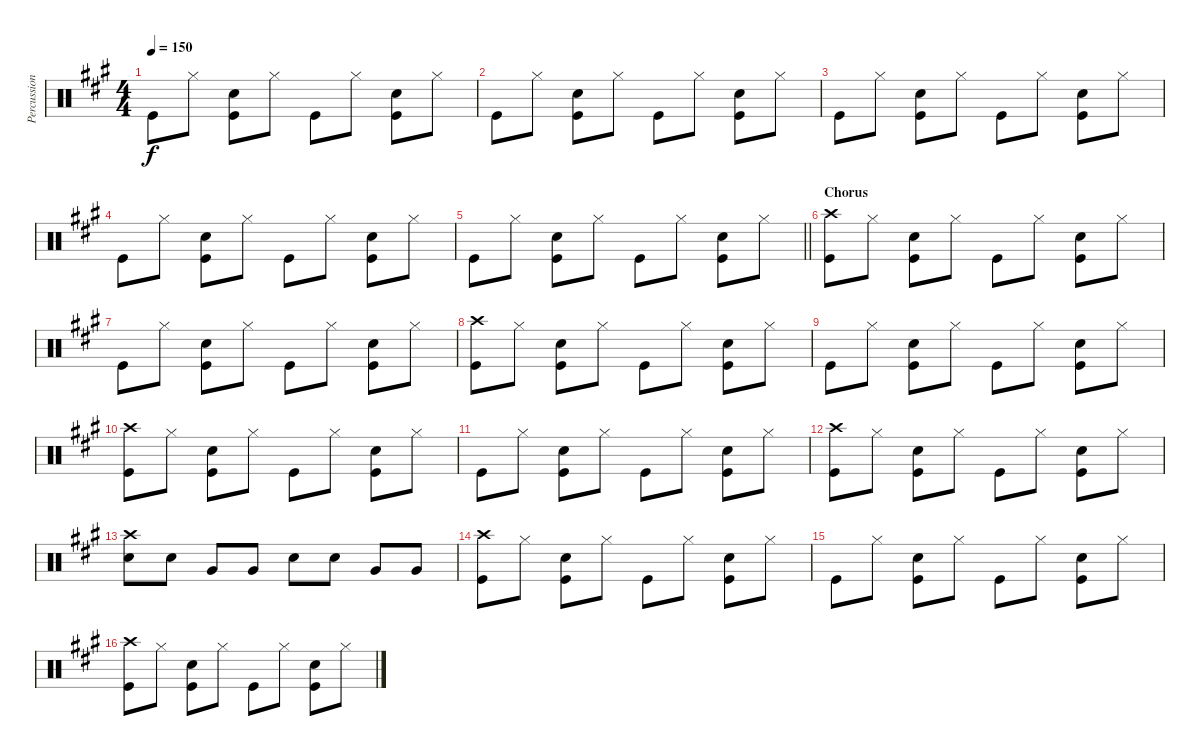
\track ("Percussion" "Percussion") {instrument percussion}
\staff {score}
\articulation defaults
\ts (4 4)
\tempo 150
\clef neutral
\ks a "Kick (hit)".8{dy f} "Hi-Hat (closed)".8
("Kick (hit)" "Snare (hit) 2").8 "Hi-Hat (closed)".8 "Kick (hit)".8 "Hi-Hat (closed)".8 ("Kick (hit)" "Snare (hit) 2").8 "Hi-Hat (closed)".8 |
"Kick (hit)".8 "Hi-Hat (closed)".8 ("Kick (hit)" "Snare (hit) 2").8 "Hi-Hat (closed)".8 "Kick (hit)".8 "Hi-Hat (closed)".8 ("Kick (hit)" "Snare (hit) 2").8 "Hi-Hat (closed)".8 |
"Kick (hit)".8 "Hi-Hat (closed)".8 ("Kick (hit)" "Snare (hit) 2").8 "Hi-Hat (closed)".8 "Kick (hit)".8 "Hi-Hat (closed)".8 ("Kick (hit)" "Snare (hit) 2").8 "Hi-Hat (closed)".8 |
"Kick (hit)".8 "Hi-Hat (closed)".8 ("Kick (hit)" "Snare (hit) 2").8 "Hi-Hat (closed)".8 "Kick (hit)".8 "Hi-Hat (closed)".8 ("Kick (hit)" "Snare (hit) 2").8 "Hi-Hat (closed)".8 |
\barLineRight lightlight "Kick (hit)".8 "Hi-Hat (closed)".8
("Kick (hit)" "Snare (hit) 2").8 "Hi-Hat (closed)".8 "Kick (hit)".8 "Hi-Hat (closed)".8 ("Kick (hit)" "Snare (hit) 2").8 "Hi-Hat (closed)".8 |
\section ("" "Chorus")
("Kick (hit)" "Crash high (hit)").8 "Hi-Hat (closed)".8 ("Kick (hit)" "Snare (hit) 2").8 "Hi-Hat (closed)".8 "Kick (hit)".8 "Hi-Hat (closed)".8 ("Snare (hit) 2" "Kick (hit)").8 "Hi-Hat (closed)".8 |
"Kick (hit)".8 "Hi-Hat (closed)".8 ("Kick (hit)" "Snare (hit) 2").8 "Hi-Hat (closed)".8 "Kick (hit)".8 "Hi-Hat (closed)".8 ("Kick (hit)" "Snare (hit) 2").8 "Hi-Hat (closed)".8 |
("Kick (hit)" "Crash high (hit)").8 "Hi-Hat (closed)".8 ("Kick (hit)" "Snare (hit) 2").8 "Hi-Hat (closed)".8 "Kick (hit)".8 "Hi-Hat (closed)".8 ("Kick (hit)" "Snare (hit) 2").8 "Hi-Hat (closed)".8 |
"Kick (hit)".8 "Hi-Hat (closed)".8 ("Kick (hit)" "Snare (hit) 2").8 "Hi-Hat (closed)".8 "Kick (hit)".8 "Hi-Hat (closed)".8 ("Kick (hit)" "Snare (hit) 2").8 "Hi-Hat (closed)".8 |
("Kick (hit)" "Crash high (hit)").8 "Hi-Hat (closed)".8 ("Kick (hit)" "Snare (hit) 2").8 "Hi-Hat (closed)".8 "Kick (hit)".8 "Hi-Hat (closed)".8 ("Kick (hit)" "Snare (hit) 2").8 "Hi-Hat (closed)".8 |
"Kick (hit)".8 "Hi-Hat (closed)".8 ("Kick (hit)" "Snare (hit) 2").8 "Hi-Hat (closed)".8 "Kick (hit)".8 "Hi-Hat (closed)".8 ("Kick (hit)" "Snare (hit) 2").8 "Hi-Hat (closed)".8 |
("Kick (hit)" "Crash high (hit)").8 "Hi-Hat (closed)".8 ("Kick (hit)" "Snare (hit) 2").8 "Hi-Hat (closed)".8 "Kick (hit)".8 "Hi-Hat (closed)".8 ("Kick (hit)" "Snare (hit) 2").8 "Hi-Hat (closed)".8 |
("Snare (hit) 2" "Crash high (hit)").8 "Snare (hit) 2".8 "Very Low Tom (hit)".8 "Very Low Tom (hit)".8 "Snare (hit) 2".8 "Snare (hit) 2".8 "Very Low Tom (hit)".8 "Very Low Tom (hit)".8 |
("Kick (hit)" "Crash high (hit)").8 "Hi-Hat (closed)".8 ("Kick (hit)" "Snare (hit) 2").8 "Hi-Hat (closed)".8 "Kick (hit)".8 "Hi-Hat (closed)".8 ("Snare (hit) 2" "Kick (hit)").8 "Hi-Hat (closed)".8 |
"Kick (hit)".8 "Hi-Hat (closed)".8 ("Kick (hit)" "Snare (hit) 2").8 "Hi-Hat (closed)".8 "Kick (hit)".8 "Hi-Hat (closed)".8 ("Kick (hit)" "Snare (hit) 2").8 "Hi-Hat (closed)".8 |
("Kick (hit)" "Crash high (hit)").8 "Hi-Hat (closed)".8 ("Kick (hit)" "Snare (hit) 2").8 "Hi-Hat (closed)".8 "Kick (hit)".8 "Hi-Hat (closed)".8 ("Kick (hit)" "Snare (hit) 2").8 "Hi-Hat (closed)".8
